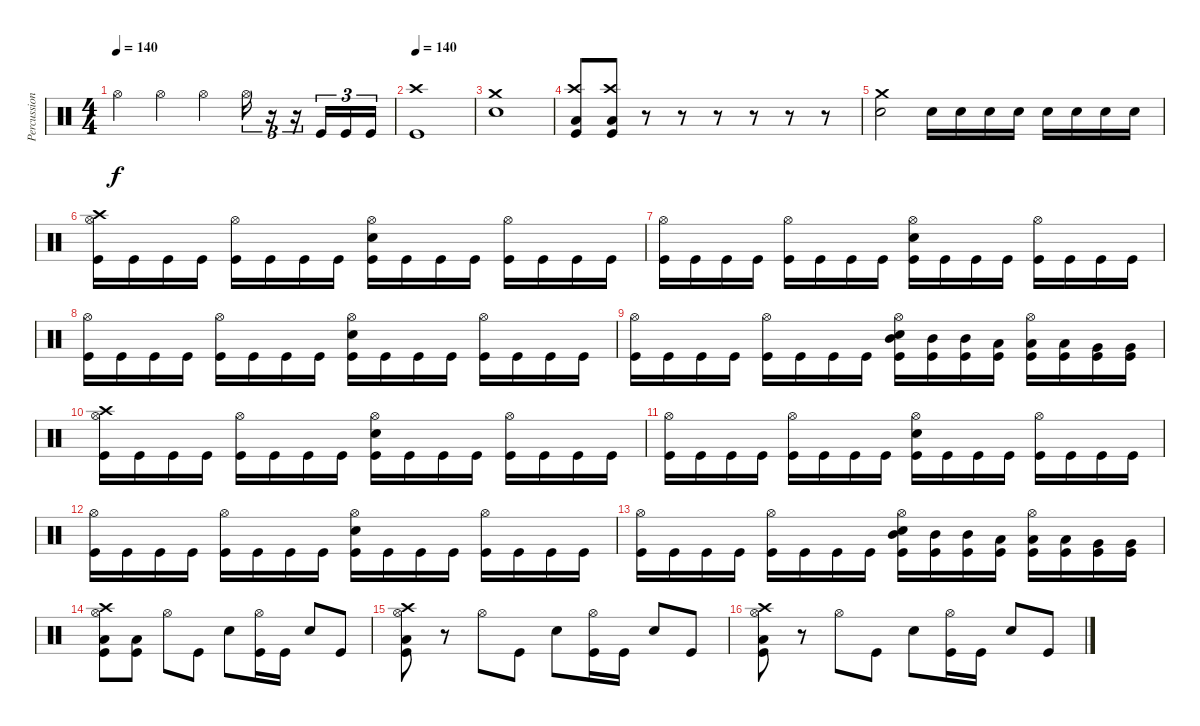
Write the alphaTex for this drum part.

\track ("Percussion" "Percussion") {instrument percussion}
\staff {score}
\articulation defaults
\ts (4 4)
\tempo 140
\clef neutral
\ks c "Hi-Hat (open)".4{dy f} "Hi-Hat (open)".4 "Hi-Hat (open)".4 "Hi-Hat (open)".16{tu (3 2)}
r.16{tu (3 2)} r.16{tu (3 2)} "Kick (hit)".16{tu (3 2)} "Kick (hit)".16{tu (3 2)} "Kick (hit)".16{tu (3 2)} |
\tempo 140
("Crash high (hit)" "Kick (hit)").1 |
("Crash medium (hit)" "Electric Snare (hit)").1 |
("Crash high (hit)" "Low Floor Tom (hit)" "Kick (hit)").8 ("Crash high (hit)" "Low Floor Tom (hit)" "Kick (hit)").8 r.8 r.8 r.8 r.8 r.8 r.8 |
("Crash medium (hit)" "Electric Snare (hit)").2 "Electric Snare (hit)".16 "Electric Snare (hit)".16 "Electric Snare (hit)".16 "Electric Snare (hit)".16 "Electric Snare (hit)".16 "Electric Snare (hit)".16 "Electric Snare (hit)".16 "Electric Snare (hit)".16 |
("Crash high (hit)" "Hi-Hat (open)" "Kick (hit)").16 "Kick (hit)".16 "Kick (hit)".16 "Kick (hit)".16 ("Hi-Hat (open)" "Kick (hit)").16 "Kick (hit)".16 "Kick (hit)".16 "Kick (hit)".16 ("Hi-Hat (open)" "Electric Snare (hit)" "Kick (hit)").16 "Kick (hit)".16 "Kick (hit)".16 "Kick (hit)".16 ("Hi-Hat (open)" "Kick (hit)").16 "Kick (hit)".16 "Kick (hit)".16 "Kick (hit)".16 |
("Hi-Hat (open)" "Kick (hit)").16 "Kick (hit)".16 "Kick (hit)".16 "Kick (hit)".16 ("Hi-Hat (open)" "Kick (hit)").16 "Kick (hit)".16 "Kick (hit)".16 "Kick (hit)".16 ("Hi-Hat (open)" "Electric Snare (hit)" "Kick (hit)").16 "Kick (hit)".16 "Kick (hit)".16 "Kick (hit)".16 ("Hi-Hat (open)" "Kick (hit)").16 "Kick (hit)".16 "Kick (hit)".16 "Kick (hit)".16 |
("Hi-Hat (open)" "Kick (hit)").16 "Kick (hit)".16 "Kick (hit)".16 "Kick (hit)".16 ("Hi-Hat (open)" "Kick (hit)").16 "Kick (hit)".16 "Kick (hit)".16 "Kick (hit)".16 ("Hi-Hat (open)" "Electric Snare (hit)" "Kick (hit)").16 "Kick (hit)".16 "Kick (hit)".16 "Kick (hit)".16 ("Hi-Hat (open)" "Kick (hit)").16 "Kick (hit)".16 "Kick (hit)".16 "Kick (hit)".16 |
("Hi-Hat (open)" "Kick (hit)").16 "Kick (hit)".16 "Kick (hit)".16 "Kick (hit)".16 ("Hi-Hat (open)" "Kick (hit)").16 "Kick (hit)".16 "Kick (hit)".16 "Kick (hit)".16 ("Mid Tom (hit)" "Hi-Hat (open)" "Electric Snare (hit)" "Kick (hit)").16 ("Mid Tom (hit)" "Kick (hit)").16 ("Mid Tom (hit)" "Kick (hit)").16 ("Low Tom (hit)" "Kick (hit)").16 ("Low Tom (hit)" "Hi-Hat (open)" "Kick (hit)").16 ("Low Tom (hit)" "Kick (hit)").16 ("Very Low Tom (hit)" "Kick (hit)").16 ("Very Low Tom (hit)" "Kick (hit)").16 |
("Crash high (hit)" "Hi-Hat (open)" "Kick (hit)").16 "Kick (hit)".16 "Kick (hit)".16 "Kick (hit)".16 ("Hi-Hat (open)" "Kick (hit)").16 "Kick (hit)".16 "Kick (hit)".16 "Kick (hit)".16 ("Hi-Hat (open)" "Electric Snare (hit)" "Kick (hit)").16 "Kick (hit)".16 "Kick (hit)".16 "Kick (hit)".16 ("Hi-Hat (open)" "Kick (hit)").16 "Kick (hit)".16 "Kick (hit)".16 "Kick (hit)".16 |
("Hi-Hat (open)" "Kick (hit)").16 "Kick (hit)".16 "Kick (hit)".16 "Kick (hit)".16 ("Hi-Hat (open)" "Kick (hit)").16 "Kick (hit)".16 "Kick (hit)".16 "Kick (hit)".16 ("Hi-Hat (open)" "Electric Snare (hit)" "Kick (hit)").16 "Kick (hit)".16 "Kick (hit)".16 "Kick (hit)".16 ("Hi-Hat (open)" "Kick (hit)").16 "Kick (hit)".16 "Kick (hit)".16 "Kick (hit)".16 |
("Hi-Hat (open)" "Kick (hit)").16 "Kick (hit)".16 "Kick (hit)".16 "Kick (hit)".16 ("Hi-Hat (open)" "Kick (hit)").16 "Kick (hit)".16 "Kick (hit)".16 "Kick (hit)".16 ("Hi-Hat (open)" "Electric Snare (hit)" "Kick (hit)").16 "Kick (hit)".16 "Kick (hit)".16 "Kick (hit)".16 ("Hi-Hat (open)" "Kick (hit)").16 "Kick (hit)".16 "Kick (hit)".16 "Kick (hit)".16 |
("Hi-Hat (open)" "Kick (hit)").16 "Kick (hit)".16 "Kick (hit)".16 "Kick (hit)".16 ("Hi-Hat (open)" "Kick (hit)").16 "Kick (hit)".16 "Kick (hit)".16 "Kick (hit)".16 ("Mid Tom (hit)" "Hi-Hat (open)" "Electric Snare (hit)" "Kick (hit)").16 ("Mid Tom (hit)" "Kick (hit)").16 ("Mid Tom (hit)" "Kick (hit)").16 ("Low Tom (hit)" "Kick (hit)").16 ("Low Tom (hit)" "Hi-Hat (open)" "Kick (hit)").16 ("Low Tom (hit)" "Kick (hit)").16 ("Very Low Tom (hit)" "Kick (hit)").16 ("Very Low Tom (hit)" "Kick (hit)").16 |
("Crash high (hit)" "Hi-Hat (open)" "Low Floor Tom (hit)" "Kick (hit)").8 ("Low Floor Tom (hit)" "Kick (hit)").8 "Hi-Hat (open)".8 "Kick (hit)".8 "Electric Snare (hit)".8 ("Hi-Hat (open)" "Kick (hit)").16 "Kick (hit)".16 "Electric Snare (hit)".8 "Kick (hit)".8 |
("Crash high (hit)" "Hi-Hat (open)" "Low Floor Tom (hit)" "Kick (hit)").8 r.8 "Hi-Hat (open)".8 "Kick (hit)".8 "Electric Snare (hit)".8 ("Hi-Hat (open)" "Kick (hit)").16 "Kick (hit)".16 "Electric Snare (hit)".8 "Kick (hit)".8 |
("Crash high (hit)" "Hi-Hat (open)" "Low Floor Tom (hit)" "Kick (hit)").8 r.8 "Hi-Hat (open)".8 "Kick (hit)".8 "Electric Snare (hit)".8 ("Hi-Hat (open)" "Kick (hit)").16 "Kick (hit)".16 "Electric Snare (hit)".8 "Kick (hit)".8
